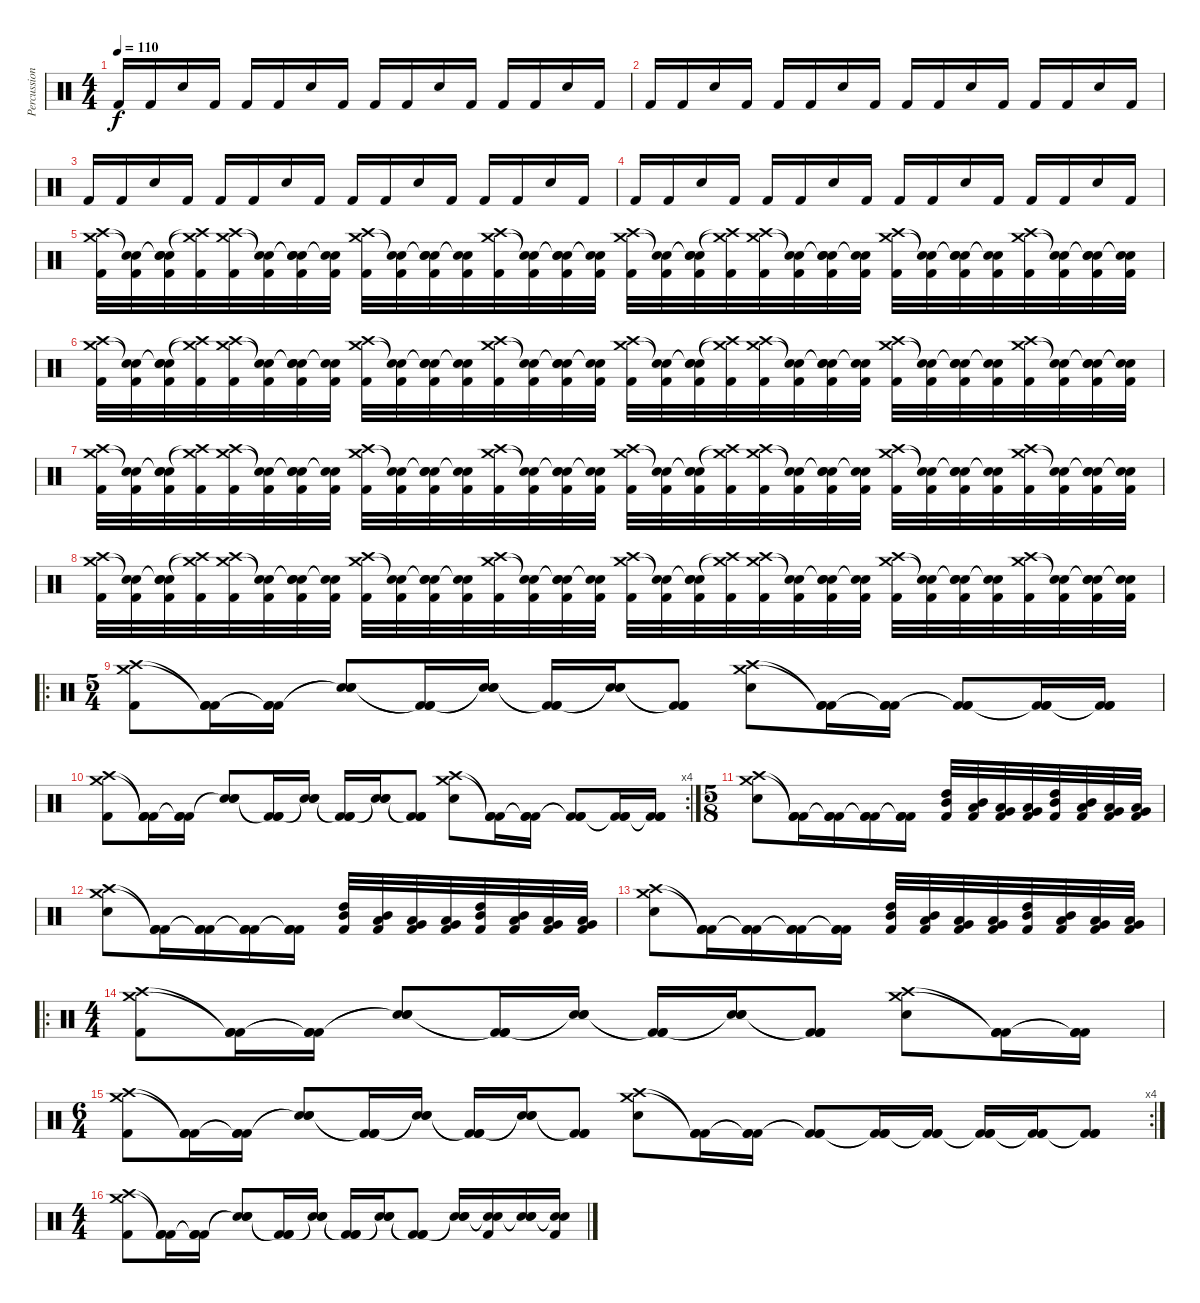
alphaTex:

\track ("Percussion" "Percussion") {instrument percussion}
\staff {score}
\articulation defaults
\ts (4 4)
\tempo 110
\clef neutral
\ks c "Kick (hit) 2".16{dy f} "Kick (hit) 2".16 "Snare (hit) 2".16 "Kick (hit) 2".16 "Kick (hit) 2".16 "Kick (hit) 2".16 "Snare (hit) 2".16 "Kick (hit) 2".16 "Kick (hit) 2".16 "Kick (hit) 2".16 "Snare (hit) 2".16 "Kick (hit) 2".16 "Kick (hit) 2".16 "Kick (hit) 2".16 "Snare (hit) 2".16 "Kick (hit) 2".16
|
"Kick (hit) 2".16 "Kick (hit) 2".16 "Snare (hit) 2".16 "Kick (hit) 2".16 "Kick (hit) 2".16 "Kick (hit) 2".16 "Snare (hit) 2".16 "Kick (hit) 2".16 "Kick (hit) 2".16 "Kick (hit) 2".16 "Snare (hit) 2".16 "Kick (hit) 2".16 "Kick (hit) 2".16 "Kick (hit) 2".16 "Snare (hit) 2".16 "Kick (hit) 2".16 |
"Kick (hit) 2".16 "Kick (hit) 2".16 "Snare (hit) 2".16 "Kick (hit) 2".16 "Kick (hit) 2".16 "Kick (hit) 2".16 "Snare (hit) 2".16 "Kick (hit) 2".16 "Kick (hit) 2".16 "Kick (hit) 2".16 "Snare (hit) 2".16 "Kick (hit) 2".16 "Kick (hit) 2".16 "Kick (hit) 2".16 "Snare (hit) 2".16 "Kick (hit) 2".16 |
"Kick (hit) 2".16 "Kick (hit) 2".16 "Snare (hit) 2".16 "Kick (hit) 2".16 "Kick (hit) 2".16 "Kick (hit) 2".16 "Snare (hit) 2".16 "Kick (hit) 2".16 "Kick (hit) 2".16 "Kick (hit) 2".16 "Snare (hit) 2".16 "Kick (hit) 2".16 "Kick (hit) 2".16 "Kick (hit) 2".16 "Snare (hit) 2".16 "Kick (hit) 2".16 |
("Crash high (hit)" "Crash medium (hit)" "Kick (hit) 2").32 ("Snare (hit)"{t} "Snare (hit)"{t} "Kick (hit) 2").32 ("Snare (hit)"{t} "Snare (hit)"{t} "Snare (hit) 2" "Kick (hit) 2").32 ("Crash high (hit)"{t} "Crash medium (hit)"{t} "Kick (hit) 2").32 ("Crash high (hit)" "Crash medium (hit)" "Kick (hit) 2").32 ("Snare (hit)"{t} "Snare (hit)"{t} "Kick (hit) 2").32 ("Snare (hit)"{t} "Snare (hit)"{t} "Snare (hit) 2" "Kick (hit) 2").32 ("Snare (hit)"{t} "Snare (hit)"{t} "Kick (hit) 2").32 ("Crash high (hit)" "Crash medium (hit)" "Kick (hit) 2").32 ("Snare (hit)"{t} "Snare (hit)"{t} "Kick (hit) 2").32 ("Snare (hit)"{t} "Snare (hit)"{t} "Snare (hit) 2" "Kick (hit) 2").32 ("Snare (hit)"{t} "Snare (hit)"{t} "Kick (hit) 2").32 ("Crash high (hit)" "Crash medium (hit)" "Kick (hit) 2").32 ("Snare (hit)"{t} "Snare (hit)"{t} "Kick (hit) 2").32 ("Snare (hit)"{t} "Snare (hit)"{t} "Snare (hit) 2" "Kick (hit) 2").32 ("Snare (hit)"{t} "Snare (hit)"{t} "Kick (hit) 2").32 ("Crash high (hit)" "Crash medium (hit)" "Kick (hit) 2").32 ("Snare (hit)"{t} "Snare (hit)"{t} "Kick (hit) 2").32 ("Snare (hit)"{t} "Snare (hit)"{t} "Snare (hit) 2" "Kick (hit) 2").32 ("Crash high (hit)"{t} "Crash medium (hit)"{t} "Kick (hit) 2").32 ("Crash high (hit)" "Crash medium (hit)" "Kick (hit) 2").32 ("Snare (hit)"{t} "Snare (hit)"{t} "Kick (hit) 2").32 ("Snare (hit)"{t} "Snare (hit)"{t} "Snare (hit) 2" "Kick (hit) 2").32 ("Snare (hit)"{t} "Snare (hit)"{t} "Kick (hit) 2").32 ("Crash high (hit)" "Crash medium (hit)" "Kick (hit) 2").32 ("Snare (hit)"{t} "Snare (hit)"{t} "Kick (hit) 2").32 ("Snare (hit)"{t} "Snare (hit)"{t} "Snare (hit) 2" "Kick (hit) 2").32 ("Snare (hit)"{t} "Snare (hit)"{t} "Kick (hit) 2").32 ("Crash high (hit)" "Crash medium (hit)" "Kick (hit) 2").32 ("Snare (hit)"{t} "Snare (hit)"{t} "Kick (hit) 2").32 ("Snare (hit)"{t} "Snare (hit)"{t} "Snare (hit) 2" "Kick (hit) 2").32 ("Snare (hit)"{t} "Snare (hit)"{t} "Kick (hit) 2").32 |
("Crash high (hit)" "Crash medium (hit)" "Kick (hit) 2").32 ("Snare (hit)"{t} "Snare (hit)"{t} "Kick (hit) 2").32 ("Snare (hit)"{t} "Snare (hit)"{t} "Snare (hit) 2" "Kick (hit) 2").32 ("Crash high (hit)"{t} "Crash medium (hit)"{t} "Kick (hit) 2").32 ("Crash high (hit)" "Crash medium (hit)" "Kick (hit) 2").32 ("Snare (hit)"{t} "Snare (hit)"{t} "Kick (hit) 2").32 ("Snare (hit)"{t} "Snare (hit)"{t} "Snare (hit) 2" "Kick (hit) 2").32 ("Snare (hit)"{t} "Snare (hit)"{t} "Kick (hit) 2").32 ("Crash high (hit)" "Crash medium (hit)" "Kick (hit) 2").32 ("Snare (hit)"{t} "Snare (hit)"{t} "Kick (hit) 2").32 ("Snare (hit)"{t} "Snare (hit)"{t} "Snare (hit) 2" "Kick (hit) 2").32 ("Snare (hit)"{t} "Snare (hit)"{t} "Kick (hit) 2").32 ("Crash high (hit)" "Crash medium (hit)" "Kick (hit) 2").32 ("Snare (hit)"{t} "Snare (hit)"{t} "Kick (hit) 2").32 ("Snare (hit)"{t} "Snare (hit)"{t} "Snare (hit) 2" "Kick (hit) 2").32 ("Snare (hit)"{t} "Snare (hit)"{t} "Kick (hit) 2").32 ("Crash high (hit)" "Crash medium (hit)" "Kick (hit) 2").32 ("Snare (hit)"{t} "Snare (hit)"{t} "Kick (hit) 2").32 ("Snare (hit)"{t} "Snare (hit)"{t} "Snare (hit) 2" "Kick (hit) 2").32 ("Crash high (hit)"{t} "Crash medium (hit)"{t} "Kick (hit) 2").32 ("Crash high (hit)" "Crash medium (hit)" "Kick (hit) 2").32 ("Snare (hit)"{t} "Snare (hit)"{t} "Kick (hit) 2").32 ("Snare (hit)"{t} "Snare (hit)"{t} "Snare (hit) 2" "Kick (hit) 2").32 ("Snare (hit)"{t} "Snare (hit)"{t} "Kick (hit) 2").32 ("Crash high (hit)" "Crash medium (hit)" "Kick (hit) 2").32 ("Snare (hit)"{t} "Snare (hit)"{t} "Kick (hit) 2").32 ("Snare (hit)"{t} "Snare (hit)"{t} "Snare (hit) 2" "Kick (hit) 2").32 ("Snare (hit)"{t} "Snare (hit)"{t} "Kick (hit) 2").32 ("Crash high (hit)" "Crash medium (hit)" "Kick (hit) 2").32 ("Snare (hit)"{t} "Snare (hit)"{t} "Kick (hit) 2").32 ("Snare (hit)"{t} "Snare (hit)"{t} "Snare (hit) 2" "Kick (hit) 2").32 ("Snare (hit)"{t} "Snare (hit)"{t} "Kick (hit) 2").32 |
("Crash high (hit)" "Crash medium (hit)" "Kick (hit) 2").32 ("Snare (hit)"{t} "Snare (hit)"{t} "Kick (hit) 2").32 ("Snare (hit)"{t} "Snare (hit)"{t} "Snare (hit) 2" "Kick (hit) 2").32 ("Crash high (hit)"{t} "Crash medium (hit)"{t} "Kick (hit) 2").32 ("Crash high (hit)" "Crash medium (hit)" "Kick (hit) 2").32 ("Snare (hit)"{t} "Snare (hit)"{t} "Kick (hit) 2").32 ("Snare (hit)"{t} "Snare (hit)"{t} "Snare (hit) 2" "Kick (hit) 2").32 ("Snare (hit)"{t} "Snare (hit)"{t} "Kick (hit) 2").32 ("Crash high (hit)" "Crash medium (hit)" "Kick (hit) 2").32 ("Snare (hit)"{t} "Snare (hit)"{t} "Kick (hit) 2").32 ("Snare (hit)"{t} "Snare (hit)"{t} "Snare (hit) 2" "Kick (hit) 2").32 ("Snare (hit)"{t} "Snare (hit)"{t} "Kick (hit) 2").32 ("Crash high (hit)" "Crash medium (hit)" "Kick (hit) 2").32 ("Snare (hit)"{t} "Snare (hit)"{t} "Kick (hit) 2").32 ("Snare (hit)"{t} "Snare (hit)"{t} "Snare (hit) 2" "Kick (hit) 2").32 ("Snare (hit)"{t} "Snare (hit)"{t} "Kick (hit) 2").32 ("Crash high (hit)" "Crash medium (hit)" "Kick (hit) 2").32 ("Snare (hit)"{t} "Snare (hit)"{t} "Kick (hit) 2").32 ("Snare (hit)"{t} "Snare (hit)"{t} "Snare (hit) 2" "Kick (hit) 2").32 ("Crash high (hit)"{t} "Crash medium (hit)"{t} "Kick (hit) 2").32 ("Crash high (hit)" "Crash medium (hit)" "Kick (hit) 2").32 ("Snare (hit)"{t} "Snare (hit)"{t} "Kick (hit) 2").32 ("Snare (hit)"{t} "Snare (hit)"{t} "Snare (hit) 2" "Kick (hit) 2").32 ("Snare (hit)"{t} "Snare (hit)"{t} "Kick (hit) 2").32 ("Crash high (hit)" "Crash medium (hit)" "Kick (hit) 2").32 ("Snare (hit)"{t} "Snare (hit)"{t} "Kick (hit) 2").32 ("Snare (hit)"{t} "Snare (hit)"{t} "Snare (hit) 2" "Kick (hit) 2").32 ("Snare (hit)"{t} "Snare (hit)"{t} "Kick (hit) 2").32 ("Crash high (hit)" "Crash medium (hit)" "Kick (hit) 2").32 ("Snare (hit)"{t} "Snare (hit)"{t} "Kick (hit) 2").32 ("Snare (hit)"{t} "Snare (hit)"{t} "Snare (hit) 2" "Kick (hit) 2").32 ("Snare (hit)"{t} "Snare (hit)"{t} "Kick (hit) 2").32 |
("Crash high (hit)" "Crash medium (hit)" "Kick (hit) 2").32 ("Snare (hit)"{t} "Snare (hit)"{t} "Kick (hit) 2").32 ("Snare (hit)"{t} "Snare (hit)"{t} "Snare (hit) 2" "Kick (hit) 2").32 ("Crash high (hit)"{t} "Crash medium (hit)"{t} "Kick (hit) 2").32 ("Crash high (hit)" "Crash medium (hit)" "Kick (hit) 2").32 ("Snare (hit)"{t} "Snare (hit)"{t} "Kick (hit) 2").32 ("Snare (hit)"{t} "Snare (hit)"{t} "Snare (hit) 2" "Kick (hit) 2").32 ("Snare (hit)"{t} "Snare (hit)"{t} "Kick (hit) 2").32 ("Crash high (hit)" "Crash medium (hit)" "Kick (hit) 2").32 ("Snare (hit)"{t} "Snare (hit)"{t} "Kick (hit) 2").32 ("Snare (hit)"{t} "Snare (hit)"{t} "Snare (hit) 2" "Kick (hit) 2").32 ("Snare (hit)"{t} "Snare (hit)"{t} "Kick (hit) 2").32 ("Crash high (hit)" "Crash medium (hit)" "Kick (hit) 2").32 ("Snare (hit)"{t} "Snare (hit)"{t} "Kick (hit) 2").32 ("Snare (hit)"{t} "Snare (hit)"{t} "Snare (hit) 2" "Kick (hit) 2").32 ("Snare (hit)"{t} "Snare (hit)"{t} "Kick (hit) 2").32 ("Crash high (hit)" "Crash medium (hit)" "Kick (hit) 2").32 ("Snare (hit)"{t} "Snare (hit)"{t} "Kick (hit) 2").32 ("Snare (hit)"{t} "Snare (hit)"{t} "Snare (hit) 2" "Kick (hit) 2").32 ("Crash high (hit)"{t} "Crash medium (hit)"{t} "Kick (hit) 2").32 ("Crash high (hit)" "Crash medium (hit)" "Kick (hit) 2").32 ("Snare (hit)"{t} "Snare (hit)"{t} "Kick (hit) 2").32 ("Snare (hit)"{t} "Snare (hit)"{t} "Snare (hit) 2" "Kick (hit) 2").32 ("Snare (hit)"{t} "Snare (hit)"{t} "Kick (hit) 2").32 ("Crash high (hit)" "Crash medium (hit)" "Kick (hit) 2").32 ("Snare (hit)"{t} "Snare (hit)"{t} "Kick (hit) 2").32 ("Snare (hit)"{t} "Snare (hit)"{t} "Snare (hit) 2" "Kick (hit) 2").32 ("Snare (hit)"{t} "Snare (hit)"{t} "Kick (hit) 2").32 ("Crash high (hit)" "Crash medium (hit)" "Kick (hit) 2").32 ("Snare (hit)"{t} "Snare (hit)"{t} "Kick (hit) 2").32 ("Snare (hit)"{t} "Snare (hit)"{t} "Snare (hit) 2" "Kick (hit) 2").32 ("Snare (hit)"{t} "Snare (hit)"{t} "Kick (hit) 2").32 |
\ro
\ts (5 4)
("Crash high (hit)" "Crash medium (hit)" "Kick (hit) 2").8 ("Kick (hit) 2"{t} "Kick (hit) 2"{t} "Kick (hit) 2").16 ("Kick (hit) 2"{t} "Kick (hit) 2"{t} "Kick (hit) 2").16 ("Snare (hit) 2"{t} "Snare (hit) 2"{t} "Snare (hit) 2").8 ("Kick (hit) 2"{t} "Kick (hit) 2"{t} "Kick (hit) 2").16 ("Snare (hit) 2"{t} "Snare (hit) 2"{t} "Snare (hit) 2").16 ("Kick (hit) 2"{t} "Kick (hit) 2"{t} "Kick (hit) 2").16 ("Snare (hit) 2"{t} "Snare (hit) 2"{t} "Snare (hit) 2").16 ("Kick (hit) 2"{t} "Kick (hit) 2"{t} "Kick (hit) 2").8 ("Crash high (hit)" "Crash medium (hit)" "Snare (hit) 2").8 ("Kick (hit) 2"{t} "Kick (hit) 2"{t} "Kick (hit) 2").16 ("Kick (hit) 2"{t} "Kick (hit) 2"{t} "Kick (hit) 2").16 ("Kick (hit) 2"{t} "Kick (hit) 2"{t} "Kick (hit) 2").8 ("Kick (hit) 2"{t} "Kick (hit) 2"{t} "Kick (hit) 2").16 ("Kick (hit) 2"{t} "Kick (hit) 2"{t} "Kick (hit) 2").16 |
\rc 4
("Crash high (hit)" "Crash medium (hit)" "Kick (hit) 2").8 ("Kick (hit) 2"{t} "Kick (hit) 2"{t} "Kick (hit) 2").16 ("Kick (hit) 2"{t} "Kick (hit) 2"{t} "Kick (hit) 2").16 ("Snare (hit) 2"{t} "Snare (hit) 2"{t} "Snare (hit) 2").8 ("Kick (hit) 2"{t} "Kick (hit) 2"{t} "Kick (hit) 2").16 ("Snare (hit) 2"{t} "Snare (hit) 2"{t} "Snare (hit) 2").16 ("Kick (hit) 2"{t} "Kick (hit) 2"{t} "Kick (hit) 2").16 ("Snare (hit) 2"{t} "Snare (hit) 2"{t} "Snare (hit) 2").16 ("Kick (hit) 2"{t} "Kick (hit) 2"{t} "Kick (hit) 2").8 ("Crash high (hit)" "Crash medium (hit)" "Snare (hit) 2").8 ("Kick (hit) 2"{t} "Kick (hit) 2"{t} "Kick (hit) 2").16 ("Kick (hit) 2"{t} "Kick (hit) 2"{t} "Kick (hit) 2").16 ("Kick (hit) 2"{t} "Kick (hit) 2"{t} "Kick (hit) 2").8 ("Kick (hit) 2"{t} "Kick (hit) 2"{t} "Kick (hit) 2").16 ("Kick (hit) 2"{t} "Kick (hit) 2"{t} "Kick (hit) 2").16 |
\ts (5 8)
("Crash high (hit)" "Crash medium (hit)" "Snare (hit) 2").8 ("Kick (hit) 2"{t} "Kick (hit) 2"{t} "Kick (hit) 2").16 ("Kick (hit) 2"{t} "Kick (hit) 2"{t} "Kick (hit) 2").16 ("Kick (hit) 2"{t} "Kick (hit) 2"{t} "Kick (hit) 2").16 ("Kick (hit) 2"{t} "Kick (hit) 2"{t} "Kick (hit) 2").16 ("High Tom (hit)" "Mid Tom (hit)" "Kick (hit) 2").32 ("Mid Tom (hit)" "Low Tom (hit)" "Kick (hit) 2").32 ("Low Tom (hit)" "Very Low Tom (hit)" "Kick (hit) 2").32 ("Very Low Tom (hit)" "Low Floor Tom (hit)" "Kick (hit) 2").32 ("High Tom (hit)" "Mid Tom (hit)" "Kick (hit) 2").32 ("Mid Tom (hit)" "Low Tom (hit)" "Kick (hit) 2").32 ("Low Tom (hit)" "Very Low Tom (hit)" "Kick (hit) 2").32 ("Very Low Tom (hit)" "Low Floor Tom (hit)" "Kick (hit) 2").32 |
("Crash high (hit)" "Crash medium (hit)" "Snare (hit) 2").8 ("Kick (hit) 2"{t} "Kick (hit) 2"{t} "Kick (hit) 2").16 ("Kick (hit) 2"{t} "Kick (hit) 2"{t} "Kick (hit) 2").16 ("Kick (hit) 2"{t} "Kick (hit) 2"{t} "Kick (hit) 2").16 ("Kick (hit) 2"{t} "Kick (hit) 2"{t} "Kick (hit) 2").16 ("High Tom (hit)" "Mid Tom (hit)" "Kick (hit) 2").32 ("Mid Tom (hit)" "Low Tom (hit)" "Kick (hit) 2").32 ("Low Tom (hit)" "Very Low Tom (hit)" "Kick (hit) 2").32 ("Very Low Tom (hit)" "Low Floor Tom (hit)" "Kick (hit) 2").32 ("High Tom (hit)" "Mid Tom (hit)" "Kick (hit) 2").32 ("Mid Tom (hit)" "Low Tom (hit)" "Kick (hit) 2").32 ("Low Tom (hit)" "Very Low Tom (hit)" "Kick (hit) 2").32 ("Very Low Tom (hit)" "Low Floor Tom (hit)" "Kick (hit) 2").32 |
("Crash high (hit)" "Crash medium (hit)" "Snare (hit) 2").8 ("Kick (hit) 2"{t} "Kick (hit) 2"{t} "Kick (hit) 2").16 ("Kick (hit) 2"{t} "Kick (hit) 2"{t} "Kick (hit) 2").16 ("Kick (hit) 2"{t} "Kick (hit) 2"{t} "Kick (hit) 2").16 ("Kick (hit) 2"{t} "Kick (hit) 2"{t} "Kick (hit) 2").16 ("High Tom (hit)" "Mid Tom (hit)" "Kick (hit) 2").32 ("Mid Tom (hit)" "Low Tom (hit)" "Kick (hit) 2").32 ("Low Tom (hit)" "Very Low Tom (hit)" "Kick (hit) 2").32 ("Very Low Tom (hit)" "Low Floor Tom (hit)" "Kick (hit) 2").32 ("High Tom (hit)" "Mid Tom (hit)" "Kick (hit) 2").32 ("Mid Tom (hit)" "Low Tom (hit)" "Kick (hit) 2").32 ("Low Tom (hit)" "Very Low Tom (hit)" "Kick (hit) 2").32 ("Very Low Tom (hit)" "Low Floor Tom (hit)" "Kick (hit) 2").32 |
\ro
\ts (4 4)
("Crash high (hit)" "Crash medium (hit)" "Kick (hit) 2").8 ("Kick (hit) 2"{t} "Kick (hit) 2"{t} "Kick (hit) 2").16 ("Kick (hit) 2"{t} "Kick (hit) 2"{t} "Kick (hit) 2").16 ("Snare (hit) 2"{t} "Snare (hit) 2"{t} "Snare (hit) 2").8 ("Kick (hit) 2"{t} "Kick (hit) 2"{t} "Kick (hit) 2").16 ("Snare (hit) 2"{t} "Snare (hit) 2"{t} "Snare (hit) 2").16 ("Kick (hit) 2"{t} "Kick (hit) 2"{t} "Kick (hit) 2").16 ("Snare (hit) 2"{t} "Snare (hit) 2"{t} "Snare (hit) 2").16 ("Kick (hit) 2"{t} "Kick (hit) 2"{t} "Kick (hit) 2").8 ("Crash high (hit)" "Crash medium (hit)" "Snare (hit) 2").8 ("Kick (hit) 2"{t} "Kick (hit) 2"{t} "Kick (hit) 2").16 ("Kick (hit) 2"{t} "Kick (hit) 2"{t} "Kick (hit) 2").16 |
\rc 4
\ts (6 4)
("Crash high (hit)" "Crash medium (hit)" "Kick (hit) 2").8 ("Kick (hit) 2"{t} "Kick (hit) 2"{t} "Kick (hit) 2").16 ("Kick (hit) 2"{t} "Kick (hit) 2"{t} "Kick (hit) 2").16 ("Snare (hit) 2"{t} "Snare (hit) 2"{t} "Snare (hit) 2").8 ("Kick (hit) 2"{t} "Kick (hit) 2"{t} "Kick (hit) 2").16 ("Snare (hit) 2"{t} "Snare (hit) 2"{t} "Snare (hit) 2").16 ("Kick (hit) 2"{t} "Kick (hit) 2"{t} "Kick (hit) 2").16 ("Snare (hit) 2"{t} "Snare (hit) 2"{t} "Snare (hit) 2").16 ("Kick (hit) 2"{t} "Kick (hit) 2"{t} "Kick (hit) 2").8 ("Crash high (hit)" "Crash medium (hit)" "Snare (hit) 2").8 ("Kick (hit) 2"{t} "Kick (hit) 2"{t} "Kick (hit) 2").16 ("Kick (hit) 2"{t} "Kick (hit) 2"{t} "Kick (hit) 2").16 ("Kick (hit) 2"{t} "Kick (hit) 2"{t} "Kick (hit) 2").8 ("Kick (hit) 2"{t} "Kick (hit) 2"{t} "Kick (hit) 2").16 ("Kick (hit) 2"{t} "Kick (hit) 2"{t} "Kick (hit) 2").16 ("Kick (hit) 2"{t} "Kick (hit) 2"{t} "Kick (hit) 2").16 ("Kick (hit) 2"{t} "Kick (hit) 2"{t} "Kick (hit) 2").16 ("Kick (hit) 2"{t} "Kick (hit) 2"{t} "Kick (hit) 2").8 |
\ts (4 4)
("Crash high (hit)" "Crash medium (hit)" "Kick (hit) 2").8 ("Kick (hit) 2"{t} "Kick (hit) 2"{t} "Kick (hit) 2").16 ("Kick (hit) 2"{t} "Kick (hit) 2"{t} "Kick (hit) 2").16 ("Snare (hit) 2"{t} "Snare (hit) 2"{t} "Snare (hit) 2").8 ("Kick (hit) 2"{t} "Kick (hit) 2"{t} "Kick (hit) 2").16 ("Snare (hit) 2"{t} "Snare (hit) 2"{t} "Snare (hit) 2").16 ("Kick (hit) 2"{t} "Kick (hit) 2"{t} "Kick (hit) 2").16 ("Snare (hit) 2"{t} "Snare (hit) 2"{t} "Snare (hit) 2").16 ("Kick (hit) 2"{t} "Kick (hit) 2"{t} "Kick (hit) 2").8 ("Snare (hit) 2"{t} "Snare (hit) 2"{t} "Snare (hit) 2").16 ("Snare (hit) 2"{t} "Snare (hit) 2"{t} "Kick (hit) 2").16 ("Snare (hit) 2"{t} "Snare (hit) 2"{t} "Snare (hit) 2").16 ("Snare (hit) 2"{t} "Snare (hit) 2"{t} "Kick (hit) 2").16
